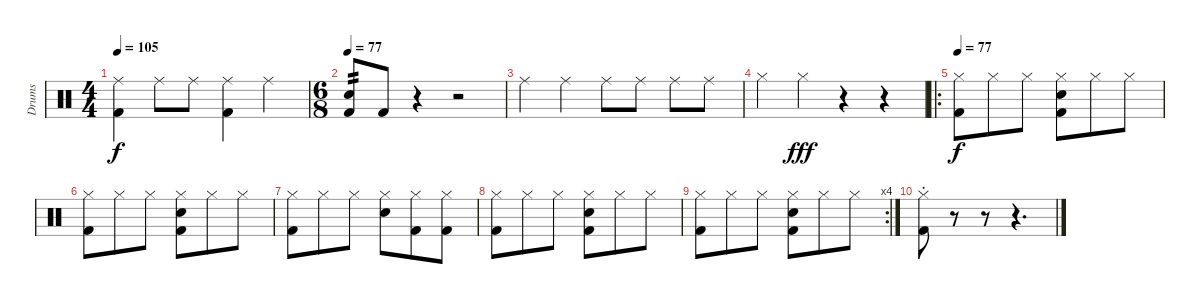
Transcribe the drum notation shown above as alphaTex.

\track ("Drums" "Drums") {instrument percussion}
\staff {score}
\articulation defaults
\ts (4 4)
\tempo 105
\clef neutral
\ks c
("Ride (middle)" "Kick (hit) 2").4{dy f} "Ride (middle)".8 "Ride (middle)".8 ("Ride (middle)" "Kick (hit) 2").4 "Ride (middle)".4 |
\ts (6 8)
\tempo 77
("Snare (hit) 2" "Kick (hit) 2").8{tp 2} "Kick (hit) 2".8 r.4 r.2 |
"Ride (middle)".4 "Ride (middle)".4 "Ride (middle)".8 "Ride (middle)".8 "Ride (middle)".8 "Ride (middle)".8 |
"Hi-Hat (closed)".4 "Hi-Hat (closed)".4{dy fff} r.4 r.4 |
\ro
\tempo 77
("Hi-Hat (closed)" "Kick (hit) 2").8{dy f} "Hi-Hat (closed)".8 "Hi-Hat (closed)".8 ("Hi-Hat (closed)" "Kick (hit) 2" "Snare (hit) 2").8 "Hi-Hat (closed)".8 "Hi-Hat (closed)".8 |
("Hi-Hat (closed)" "Kick (hit) 2").8 "Hi-Hat (closed)".8 "Hi-Hat (closed)".8 ("Hi-Hat (closed)" "Kick (hit) 2" "Snare (hit) 2").8 "Hi-Hat (closed)".8 "Hi-Hat (closed)".8 |
("Hi-Hat (closed)" "Kick (hit) 2").8 "Hi-Hat (closed)".8 "Hi-Hat (closed)".8 ("Hi-Hat (closed)" "Snare (hit) 2").8 ("Hi-Hat (closed)" "Kick (hit) 2").8 ("Hi-Hat (closed)" "Kick (hit) 2").8 |
("Hi-Hat (closed)" "Kick (hit) 2").8 "Hi-Hat (closed)".8 "Hi-Hat (closed)".8 ("Hi-Hat (closed)" "Kick (hit) 2" "Snare (hit) 2").8 "Hi-Hat (closed)".8 "Hi-Hat (closed)".8 |
\rc 4
("Hi-Hat (closed)" "Kick (hit) 2").8 "Hi-Hat (closed)".8 "Hi-Hat (closed)".8 ("Hi-Hat (closed)" "Kick (hit) 2" "Snare (hit) 2").8 "Hi-Hat (closed)".8 "Hi-Hat (closed)".8 |
("Hi-Hat (closed)"{st} "Kick (hit) 2"{st}).8 r.8 r.8 r.4{d}
